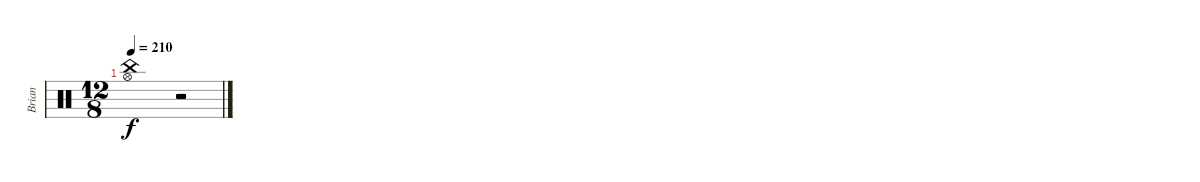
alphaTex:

\track ("Brian" "Brian") {instrument percussion}
\staff {score}
\articulation defaults
\ts (12 8)
\tempo 210
\clef neutral
\ks c
("China (hit)" "Hi-Hat (open)").1{dy f} r.2
